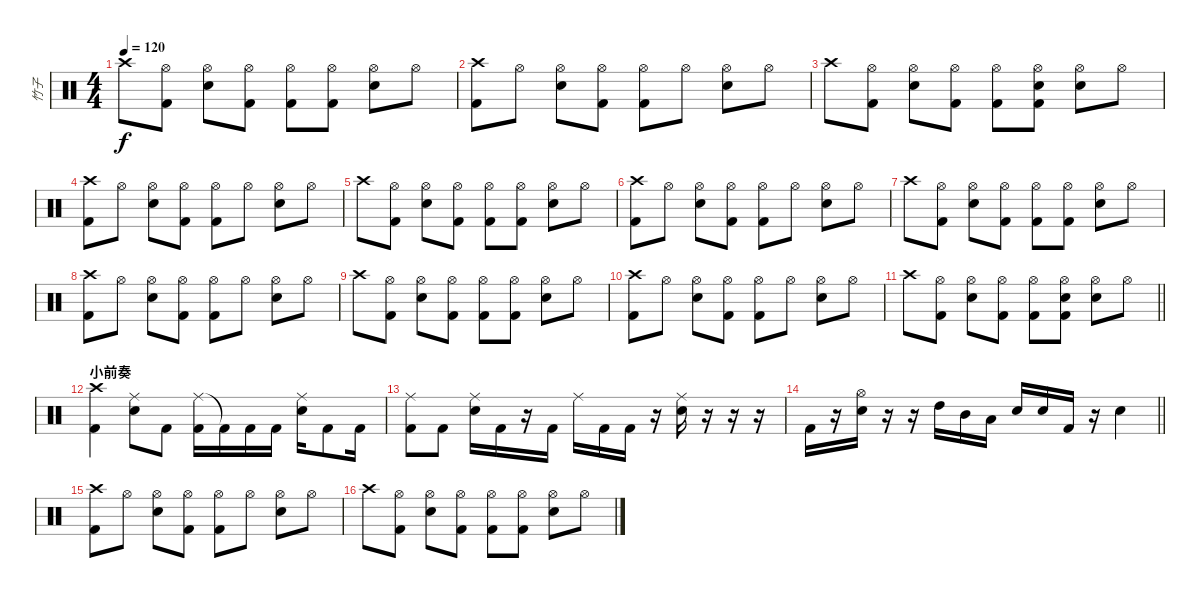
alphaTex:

\track ("竹子" "竹子") {instrument percussion}
\staff {score}
\articulation defaults
\ts (4 4)
\tempo 120
\clef neutral
\ks c "Crash high (hit)".8{dy f}
("Hi-Hat (open)" "Kick (hit) 2").8 ("Hi-Hat (open)" "Electric Snare (hit)").8 ("Hi-Hat (open)" "Kick (hit) 2").8 ("Hi-Hat (open)" "Kick (hit) 2").8 ("Hi-Hat (open)" "Kick (hit) 2").8 ("Hi-Hat (open)" "Electric Snare (hit)").8 "Hi-Hat (open)".8 |
("Crash high (hit)" "Kick (hit) 2").8 "Hi-Hat (open)".8 ("Hi-Hat (open)" "Electric Snare (hit)").8 ("Hi-Hat (open)" "Kick (hit) 2").8 ("Hi-Hat (open)" "Kick (hit) 2").8 "Hi-Hat (open)".8 ("Hi-Hat (open)" "Electric Snare (hit)").8 "Hi-Hat (open)".8 |
"Crash high (hit)".8 ("Hi-Hat (open)" "Kick (hit) 2").8 ("Hi-Hat (open)" "Electric Snare (hit)").8 ("Hi-Hat (open)" "Kick (hit) 2").8 ("Hi-Hat (open)" "Kick (hit) 2").8 ("Hi-Hat (open)" "Electric Snare (hit)" "Kick (hit) 2").8 ("Hi-Hat (open)" "Electric Snare (hit)").8 "Hi-Hat (open)".8 |
("Crash high (hit)" "Kick (hit) 2").8 "Hi-Hat (open)".8 ("Hi-Hat (open)" "Electric Snare (hit)").8 ("Hi-Hat (open)" "Kick (hit) 2").8 ("Hi-Hat (open)" "Kick (hit) 2").8 "Hi-Hat (open)".8 ("Hi-Hat (open)" "Electric Snare (hit)").8 "Hi-Hat (open)".8 |
"Crash high (hit)".8 ("Hi-Hat (open)" "Kick (hit) 2").8 ("Hi-Hat (open)" "Electric Snare (hit)").8 ("Hi-Hat (open)" "Kick (hit) 2").8 ("Hi-Hat (open)" "Kick (hit) 2").8 ("Hi-Hat (open)" "Kick (hit) 2").8 ("Hi-Hat (open)" "Electric Snare (hit)").8 "Hi-Hat (open)".8 |
("Crash high (hit)" "Kick (hit) 2").8 "Hi-Hat (open)".8 ("Hi-Hat (open)" "Electric Snare (hit)").8 ("Hi-Hat (open)" "Kick (hit) 2").8 ("Hi-Hat (open)" "Kick (hit) 2").8 "Hi-Hat (open)".8 ("Hi-Hat (open)" "Electric Snare (hit)").8 "Hi-Hat (open)".8 |
"Crash high (hit)".8 ("Hi-Hat (open)" "Kick (hit) 2").8 ("Hi-Hat (open)" "Electric Snare (hit)").8 ("Hi-Hat (open)" "Kick (hit) 2").8 ("Hi-Hat (open)" "Kick (hit) 2").8 ("Hi-Hat (open)" "Kick (hit) 2").8 ("Hi-Hat (open)" "Electric Snare (hit)").8 "Hi-Hat (open)".8 |
("Crash high (hit)" "Kick (hit) 2").8 "Hi-Hat (open)".8 ("Hi-Hat (open)" "Electric Snare (hit)").8 ("Hi-Hat (open)" "Kick (hit) 2").8 ("Hi-Hat (open)" "Kick (hit) 2").8 "Hi-Hat (open)".8 ("Hi-Hat (open)" "Electric Snare (hit)").8 "Hi-Hat (open)".8 |
"Crash high (hit)".8 ("Hi-Hat (open)" "Kick (hit) 2").8 ("Hi-Hat (open)" "Electric Snare (hit)").8 ("Hi-Hat (open)" "Kick (hit) 2").8 ("Hi-Hat (open)" "Kick (hit) 2").8 ("Hi-Hat (open)" "Kick (hit) 2").8 ("Hi-Hat (open)" "Electric Snare (hit)").8 "Hi-Hat (open)".8 |
("Crash high (hit)" "Kick (hit) 2").8 "Hi-Hat (open)".8 ("Hi-Hat (open)" "Electric Snare (hit)").8 ("Hi-Hat (open)" "Kick (hit) 2").8 ("Hi-Hat (open)" "Kick (hit) 2").8 "Hi-Hat (open)".8 ("Hi-Hat (open)" "Electric Snare (hit)").8 "Hi-Hat (open)".8 |
\barLineRight lightlight "Crash high (hit)".8
("Hi-Hat (open)" "Kick (hit) 2").8 ("Hi-Hat (open)" "Electric Snare (hit)").8 ("Hi-Hat (open)" "Kick (hit) 2").8 ("Hi-Hat (open)" "Kick (hit) 2").8 ("Hi-Hat (open)" "Electric Snare (hit)" "Kick (hit) 2").8 ("Hi-Hat (open)" "Electric Snare (hit)").8 "Hi-Hat (open)".8 |
\section ("" "小前奏")
("Crash high (hit)" "Kick (hit) 2").4 ("Ride (middle)" "Electric Snare (hit)").8 "Kick (hit) 2".8 ("Ride (middle)" "Kick (hit) 2").16 "Kick (hit) 2"{t}.16 "Kick (hit) 2".16 "Kick (hit) 2".16 ("Ride (middle)" "Electric Snare (hit)").16 "Kick (hit) 2".8 "Kick (hit) 2".16 |
("Ride (middle)" "Kick (hit) 2").8 "Kick (hit) 2".8 ("Ride (middle)" "Electric Snare (hit)").16 "Kick (hit) 2".16 r.16 "Kick (hit) 2".16 "Ride (middle)".16 "Kick (hit) 2".16 "Kick (hit) 2".16 r.16 ("Ride (middle)" "Electric Snare (hit)").16 r.16 r.16 r.16 |
\barLineRight lightlight "Kick (hit) 2".16
r.16 ("Hi-Hat (open)" "Electric Snare (hit)").16 r.16 r.16 "High Tom (hit)".16 "Mid Tom (hit)".16 "Low Tom (hit)".16 "Electric Snare (hit)".16 "Electric Snare (hit)".16 "Kick (hit) 2".16 r.16 "Electric Snare (hit)".4 |
("Crash high (hit)" "Kick (hit) 2").8 "Hi-Hat (open)".8 ("Hi-Hat (open)" "Electric Snare (hit)").8 ("Hi-Hat (open)" "Kick (hit) 2").8 ("Hi-Hat (open)" "Kick (hit) 2").8 "Hi-Hat (open)".8 ("Hi-Hat (open)" "Electric Snare (hit)").8 "Hi-Hat (open)".8 |
"Crash high (hit)".8 ("Hi-Hat (open)" "Kick (hit) 2").8 ("Hi-Hat (open)" "Electric Snare (hit)").8 ("Hi-Hat (open)" "Kick (hit) 2").8 ("Hi-Hat (open)" "Kick (hit) 2").8 ("Hi-Hat (open)" "Kick (hit) 2").8 ("Hi-Hat (open)" "Electric Snare (hit)").8 "Hi-Hat (open)".8
